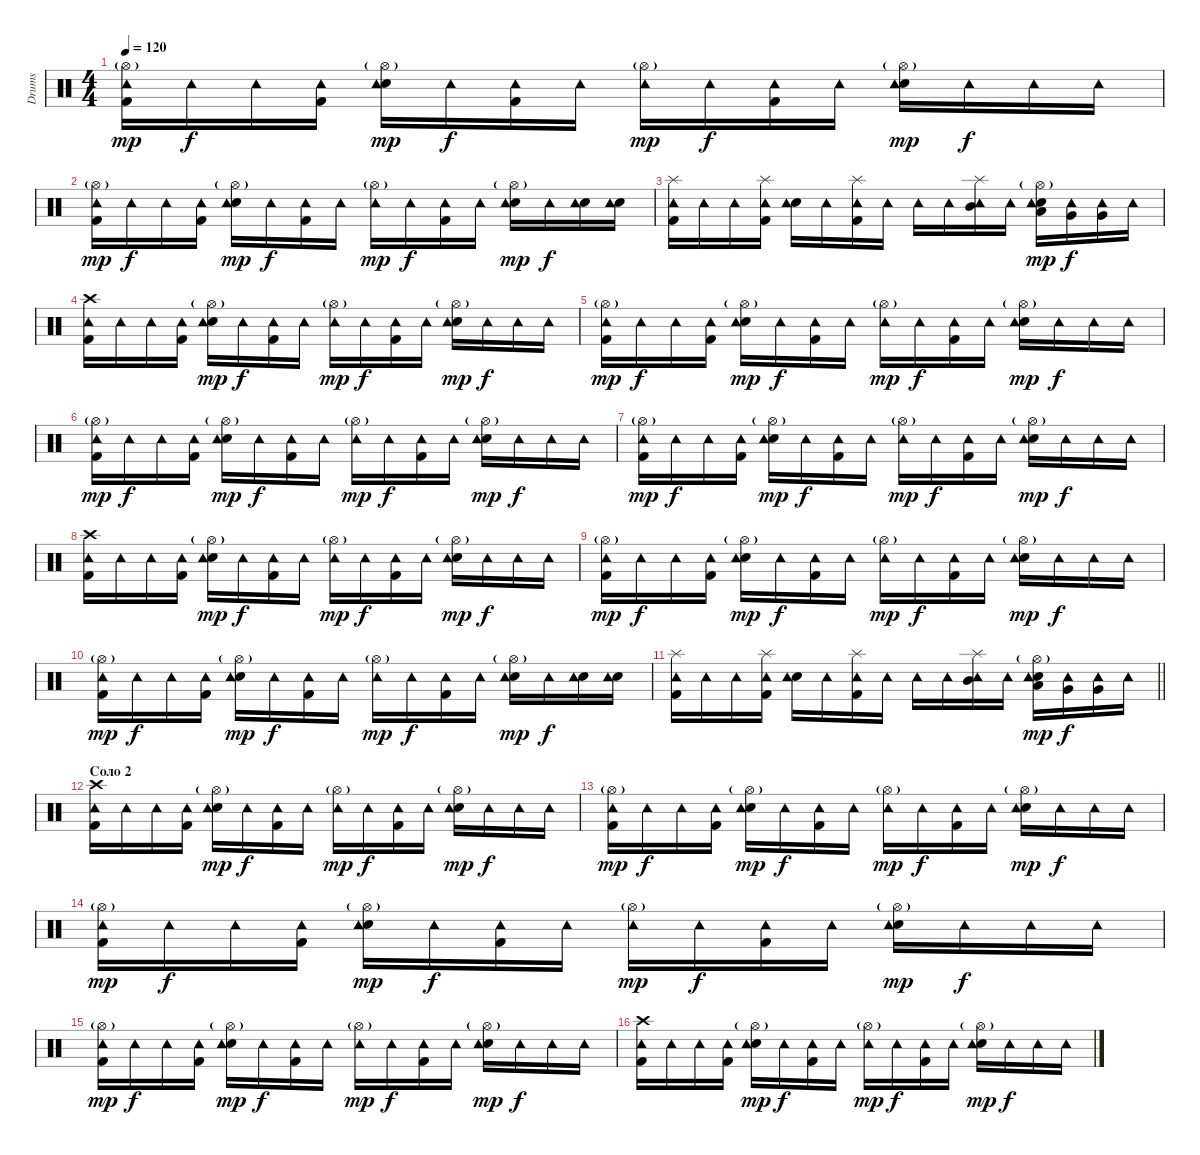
\track ("Drums" "Drums") {instrument percussion}
\staff {score}
\articulation defaults
\ts (4 4)
\tempo 120
\clef neutral
\ks c
("Hi-Hat (open)"{g} "Kick (hit) 2" "Tambourine (hit)").16{dy mp} "Tambourine (hit)".16{dy f} "Tambourine (hit)".16 ("Kick (hit) 2" "Tambourine (hit)").16 ("Hi-Hat (open)"{g} "Electric Snare (hit)" "Tambourine (hit)").16{dy mp} "Tambourine (hit)".16{dy f} ("Kick (hit) 2" "Tambourine (hit)").16 "Tambourine (hit)".16 ("Hi-Hat (open)"{g} "Tambourine (hit)").16{dy mp} "Tambourine (hit)".16{dy f} ("Kick (hit) 2" "Tambourine (hit)").16 "Tambourine (hit)".16 ("Hi-Hat (open)"{g} "Electric Snare (hit)" "Tambourine (hit)").16{dy mp} "Tambourine (hit)".16{dy f} "Tambourine (hit)".16 "Tambourine (hit)".16 |
("Hi-Hat (open)"{g} "Kick (hit) 2" "Tambourine (hit)").16{dy mp} "Tambourine (hit)".16{dy f} "Tambourine (hit)".16 ("Kick (hit) 2" "Tambourine (hit)").16 ("Hi-Hat (open)"{g} "Electric Snare (hit)" "Tambourine (hit)").16{dy mp} "Tambourine (hit)".16{dy f} ("Kick (hit) 2" "Tambourine (hit)").16 "Tambourine (hit)".16 ("Hi-Hat (open)"{g} "Tambourine (hit)").16{dy mp} "Tambourine (hit)".16{dy f} ("Kick (hit) 2" "Tambourine (hit)").16 "Tambourine (hit)".16 ("Hi-Hat (open)"{g} "Electric Snare (hit)" "Tambourine (hit)").16{dy mp} "Tambourine (hit)".16{dy f} ("Electric Snare (hit)" "Tambourine (hit)").16 ("Electric Snare (hit)" "Tambourine (hit)").16 |
("Splash (hit)" "Kick (hit) 2" "Tambourine (hit)").16 "Tambourine (hit)".16 "Tambourine (hit)".16 ("Splash (hit)" "Kick (hit) 2" "Tambourine (hit)").16 ("Electric Snare (hit)" "Tambourine (hit)").16 "Tambourine (hit)".16 ("Splash (hit)" "Kick (hit) 2" "Tambourine (hit)").16 "Tambourine (hit)".16 "Tambourine (hit)".16 "Tambourine (hit)".16 ("Splash (hit)" "Tambourine (hit)" "Mid Tom (hit)").16 "Tambourine (hit)".16 ("Hi-Hat (open)"{g} "Electric Snare (hit)" "Tambourine (hit)" "Low Tom (hit)").16{dy mp} ("Tambourine (hit)" "Very Low Tom (hit)").16{dy f} ("Tambourine (hit)" "Very Low Tom (hit)").16 "Tambourine (hit)".16 |
("Crash high (hit)" "Kick (hit) 2" "Tambourine (hit)").16 "Tambourine (hit)".16 "Tambourine (hit)".16 ("Kick (hit) 2" "Tambourine (hit)").16 ("Hi-Hat (open)"{g} "Electric Snare (hit)" "Tambourine (hit)").16{dy mp} "Tambourine (hit)".16{dy f} ("Kick (hit) 2" "Tambourine (hit)").16 "Tambourine (hit)".16 ("Hi-Hat (open)"{g} "Tambourine (hit)").16{dy mp} "Tambourine (hit)".16{dy f} ("Kick (hit) 2" "Tambourine (hit)").16 "Tambourine (hit)".16 ("Hi-Hat (open)"{g} "Electric Snare (hit)" "Tambourine (hit)").16{dy mp} "Tambourine (hit)".16{dy f} "Tambourine (hit)".16 "Tambourine (hit)".16 |
("Hi-Hat (open)"{g} "Kick (hit) 2" "Tambourine (hit)").16{dy mp} "Tambourine (hit)".16{dy f} "Tambourine (hit)".16 ("Kick (hit) 2" "Tambourine (hit)").16 ("Hi-Hat (open)"{g} "Electric Snare (hit)" "Tambourine (hit)").16{dy mp} "Tambourine (hit)".16{dy f} ("Kick (hit) 2" "Tambourine (hit)").16 "Tambourine (hit)".16 ("Hi-Hat (open)"{g} "Tambourine (hit)").16{dy mp} "Tambourine (hit)".16{dy f} ("Kick (hit) 2" "Tambourine (hit)").16 "Tambourine (hit)".16 ("Hi-Hat (open)"{g} "Electric Snare (hit)" "Tambourine (hit)").16{dy mp} "Tambourine (hit)".16{dy f} "Tambourine (hit)".16 "Tambourine (hit)".16 |
("Hi-Hat (open)"{g} "Kick (hit) 2" "Tambourine (hit)").16{dy mp} "Tambourine (hit)".16{dy f} "Tambourine (hit)".16 ("Kick (hit) 2" "Tambourine (hit)").16 ("Hi-Hat (open)"{g} "Electric Snare (hit)" "Tambourine (hit)").16{dy mp} "Tambourine (hit)".16{dy f} ("Kick (hit) 2" "Tambourine (hit)").16 "Tambourine (hit)".16 ("Hi-Hat (open)"{g} "Tambourine (hit)").16{dy mp} "Tambourine (hit)".16{dy f} ("Kick (hit) 2" "Tambourine (hit)").16 "Tambourine (hit)".16 ("Hi-Hat (open)"{g} "Electric Snare (hit)" "Tambourine (hit)").16{dy mp} "Tambourine (hit)".16{dy f} "Tambourine (hit)".16 "Tambourine (hit)".16 |
("Hi-Hat (open)"{g} "Kick (hit) 2" "Tambourine (hit)").16{dy mp} "Tambourine (hit)".16{dy f} "Tambourine (hit)".16 ("Kick (hit) 2" "Tambourine (hit)").16 ("Hi-Hat (open)"{g} "Electric Snare (hit)" "Tambourine (hit)").16{dy mp} "Tambourine (hit)".16{dy f} ("Kick (hit) 2" "Tambourine (hit)").16 "Tambourine (hit)".16 ("Hi-Hat (open)"{g} "Tambourine (hit)").16{dy mp} "Tambourine (hit)".16{dy f} ("Kick (hit) 2" "Tambourine (hit)").16 "Tambourine (hit)".16 ("Hi-Hat (open)"{g} "Electric Snare (hit)" "Tambourine (hit)").16{dy mp} "Tambourine (hit)".16{dy f} "Tambourine (hit)".16 "Tambourine (hit)".16 |
("Crash high (hit)" "Kick (hit) 2" "Tambourine (hit)").16 "Tambourine (hit)".16 "Tambourine (hit)".16 ("Kick (hit) 2" "Tambourine (hit)").16 ("Hi-Hat (open)"{g} "Electric Snare (hit)" "Tambourine (hit)").16{dy mp} "Tambourine (hit)".16{dy f} ("Kick (hit) 2" "Tambourine (hit)").16 "Tambourine (hit)".16 ("Hi-Hat (open)"{g} "Tambourine (hit)").16{dy mp} "Tambourine (hit)".16{dy f} ("Kick (hit) 2" "Tambourine (hit)").16 "Tambourine (hit)".16 ("Hi-Hat (open)"{g} "Electric Snare (hit)" "Tambourine (hit)").16{dy mp} "Tambourine (hit)".16{dy f} "Tambourine (hit)".16 "Tambourine (hit)".16 |
("Hi-Hat (open)"{g} "Kick (hit) 2" "Tambourine (hit)").16{dy mp} "Tambourine (hit)".16{dy f} "Tambourine (hit)".16 ("Kick (hit) 2" "Tambourine (hit)").16 ("Hi-Hat (open)"{g} "Electric Snare (hit)" "Tambourine (hit)").16{dy mp} "Tambourine (hit)".16{dy f} ("Kick (hit) 2" "Tambourine (hit)").16 "Tambourine (hit)".16 ("Hi-Hat (open)"{g} "Tambourine (hit)").16{dy mp} "Tambourine (hit)".16{dy f} ("Kick (hit) 2" "Tambourine (hit)").16 "Tambourine (hit)".16 ("Hi-Hat (open)"{g} "Electric Snare (hit)" "Tambourine (hit)").16{dy mp} "Tambourine (hit)".16{dy f} "Tambourine (hit)".16 "Tambourine (hit)".16 |
("Hi-Hat (open)"{g} "Kick (hit) 2" "Tambourine (hit)").16{dy mp} "Tambourine (hit)".16{dy f} "Tambourine (hit)".16 ("Kick (hit) 2" "Tambourine (hit)").16 ("Hi-Hat (open)"{g} "Electric Snare (hit)" "Tambourine (hit)").16{dy mp} "Tambourine (hit)".16{dy f} ("Kick (hit) 2" "Tambourine (hit)").16 "Tambourine (hit)".16 ("Hi-Hat (open)"{g} "Tambourine (hit)").16{dy mp} "Tambourine (hit)".16{dy f} ("Kick (hit) 2" "Tambourine (hit)").16 "Tambourine (hit)".16 ("Hi-Hat (open)"{g} "Electric Snare (hit)" "Tambourine (hit)").16{dy mp} "Tambourine (hit)".16{dy f} ("Electric Snare (hit)" "Tambourine (hit)").16 ("Electric Snare (hit)" "Tambourine (hit)").16 |
\barLineRight lightlight
("Splash (hit)" "Kick (hit) 2" "Tambourine (hit)").16 "Tambourine (hit)".16 "Tambourine (hit)".16 ("Splash (hit)" "Kick (hit) 2" "Tambourine (hit)").16 ("Electric Snare (hit)" "Tambourine (hit)").16 "Tambourine (hit)".16 ("Splash (hit)" "Kick (hit) 2" "Tambourine (hit)").16 "Tambourine (hit)".16 "Tambourine (hit)".16 "Tambourine (hit)".16 ("Splash (hit)" "Tambourine (hit)" "Mid Tom (hit)").16 "Tambourine (hit)".16 ("Hi-Hat (open)"{g} "Electric Snare (hit)" "Tambourine (hit)" "Low Tom (hit)").16{dy mp} ("Tambourine (hit)" "Very Low Tom (hit)").16{dy f} ("Tambourine (hit)" "Very Low Tom (hit)").16 "Tambourine (hit)".16 |
\section ("" "Соло 2")
("Crash high (hit)" "Kick (hit) 2" "Tambourine (hit)").16 "Tambourine (hit)".16 "Tambourine (hit)".16 ("Kick (hit) 2" "Tambourine (hit)").16 ("Hi-Hat (open)"{g} "Electric Snare (hit)" "Tambourine (hit)").16{dy mp} "Tambourine (hit)".16{dy f} ("Kick (hit) 2" "Tambourine (hit)").16 "Tambourine (hit)".16 ("Hi-Hat (open)"{g} "Tambourine (hit)").16{dy mp} "Tambourine (hit)".16{dy f} ("Kick (hit) 2" "Tambourine (hit)").16 "Tambourine (hit)".16 ("Hi-Hat (open)"{g} "Electric Snare (hit)" "Tambourine (hit)").16{dy mp} "Tambourine (hit)".16{dy f} "Tambourine (hit)".16 "Tambourine (hit)".16 |
("Hi-Hat (open)"{g} "Kick (hit) 2" "Tambourine (hit)").16{dy mp} "Tambourine (hit)".16{dy f} "Tambourine (hit)".16 ("Kick (hit) 2" "Tambourine (hit)").16 ("Hi-Hat (open)"{g} "Electric Snare (hit)" "Tambourine (hit)").16{dy mp} "Tambourine (hit)".16{dy f} ("Kick (hit) 2" "Tambourine (hit)").16 "Tambourine (hit)".16 ("Hi-Hat (open)"{g} "Tambourine (hit)").16{dy mp} "Tambourine (hit)".16{dy f} ("Kick (hit) 2" "Tambourine (hit)").16 "Tambourine (hit)".16 ("Hi-Hat (open)"{g} "Electric Snare (hit)" "Tambourine (hit)").16{dy mp} "Tambourine (hit)".16{dy f} "Tambourine (hit)".16 "Tambourine (hit)".16 |
("Hi-Hat (open)"{g} "Kick (hit) 2" "Tambourine (hit)").16{dy mp} "Tambourine (hit)".16{dy f} "Tambourine (hit)".16 ("Kick (hit) 2" "Tambourine (hit)").16 ("Hi-Hat (open)"{g} "Electric Snare (hit)" "Tambourine (hit)").16{dy mp} "Tambourine (hit)".16{dy f} ("Kick (hit) 2" "Tambourine (hit)").16 "Tambourine (hit)".16 ("Hi-Hat (open)"{g} "Tambourine (hit)").16{dy mp} "Tambourine (hit)".16{dy f} ("Kick (hit) 2" "Tambourine (hit)").16 "Tambourine (hit)".16 ("Hi-Hat (open)"{g} "Electric Snare (hit)" "Tambourine (hit)").16{dy mp} "Tambourine (hit)".16{dy f} "Tambourine (hit)".16 "Tambourine (hit)".16 |
("Hi-Hat (open)"{g} "Kick (hit) 2" "Tambourine (hit)").16{dy mp} "Tambourine (hit)".16{dy f} "Tambourine (hit)".16 ("Kick (hit) 2" "Tambourine (hit)").16 ("Hi-Hat (open)"{g} "Electric Snare (hit)" "Tambourine (hit)").16{dy mp} "Tambourine (hit)".16{dy f} ("Kick (hit) 2" "Tambourine (hit)").16 "Tambourine (hit)".16 ("Hi-Hat (open)"{g} "Tambourine (hit)").16{dy mp} "Tambourine (hit)".16{dy f} ("Kick (hit) 2" "Tambourine (hit)").16 "Tambourine (hit)".16 ("Hi-Hat (open)"{g} "Electric Snare (hit)" "Tambourine (hit)").16{dy mp} "Tambourine (hit)".16{dy f} "Tambourine (hit)".16 "Tambourine (hit)".16 |
("Crash high (hit)" "Kick (hit) 2" "Tambourine (hit)").16 "Tambourine (hit)".16 "Tambourine (hit)".16 ("Kick (hit) 2" "Tambourine (hit)").16 ("Hi-Hat (open)"{g} "Electric Snare (hit)" "Tambourine (hit)").16{dy mp} "Tambourine (hit)".16{dy f} ("Kick (hit) 2" "Tambourine (hit)").16 "Tambourine (hit)".16 ("Hi-Hat (open)"{g} "Tambourine (hit)").16{dy mp} "Tambourine (hit)".16{dy f} ("Kick (hit) 2" "Tambourine (hit)").16 "Tambourine (hit)".16 ("Hi-Hat (open)"{g} "Electric Snare (hit)" "Tambourine (hit)").16{dy mp} "Tambourine (hit)".16{dy f} "Tambourine (hit)".16 "Tambourine (hit)".16
